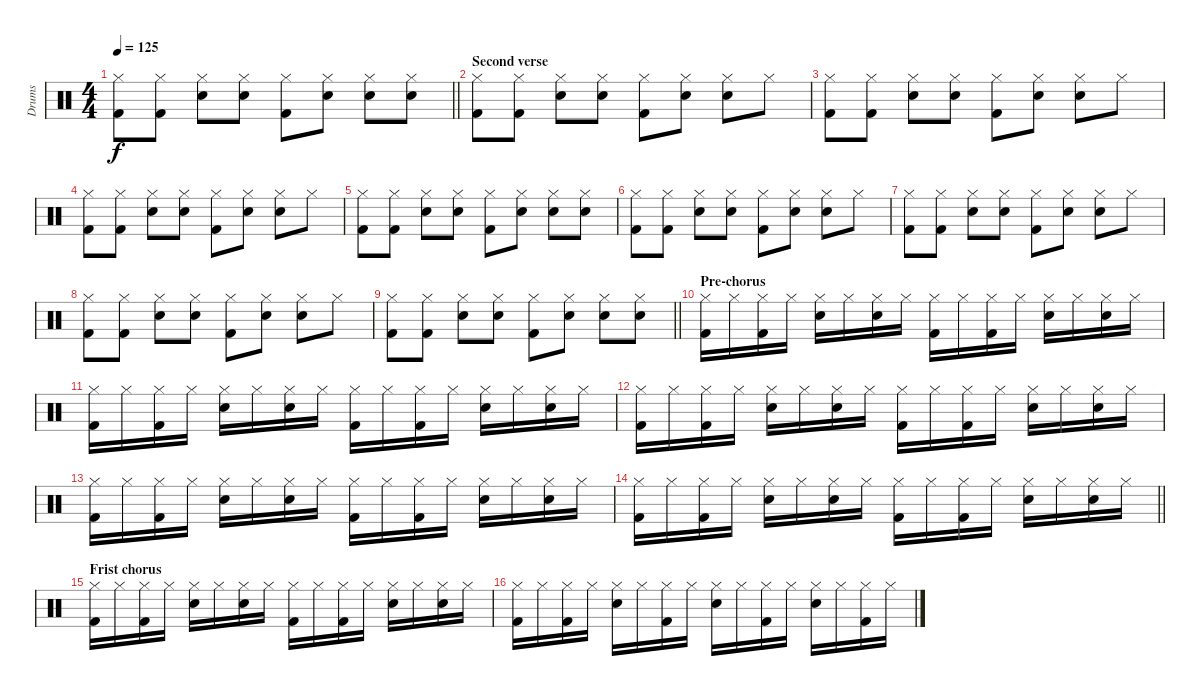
\track ("Drums" "Drums") {instrument percussion}
\staff {score}
\articulation defaults
\ts (4 4)
\tempo 125
\clef neutral
\barLineRight lightlight
\ks c
("Hi-Hat (closed)" "Kick (hit) 2").8{dy f} ("Hi-Hat (closed)" "Kick (hit) 2").8 ("Hi-Hat (closed)" "Electric Snare (hit)").8 ("Hi-Hat (closed)" "Electric Snare (hit)").8 ("Hi-Hat (closed)" "Kick (hit) 2").8 ("Hi-Hat (closed)" "Electric Snare (hit)").8 ("Hi-Hat (closed)" "Electric Snare (hit)").8 ("Hi-Hat (closed)" "Electric Snare (hit)").8 |
\section ("" "Second verse")
("Hi-Hat (closed)" "Kick (hit) 2").8 ("Hi-Hat (closed)" "Kick (hit) 2").8 ("Hi-Hat (closed)" "Electric Snare (hit)").8 ("Hi-Hat (closed)" "Electric Snare (hit)").8 ("Hi-Hat (closed)" "Kick (hit) 2").8 ("Hi-Hat (closed)" "Electric Snare (hit)").8 ("Hi-Hat (closed)" "Electric Snare (hit)").8 "Hi-Hat (closed)".8 |
("Hi-Hat (closed)" "Kick (hit) 2").8 ("Hi-Hat (closed)" "Kick (hit) 2").8 ("Hi-Hat (closed)" "Electric Snare (hit)").8 ("Hi-Hat (closed)" "Electric Snare (hit)").8 ("Hi-Hat (closed)" "Kick (hit) 2").8 ("Hi-Hat (closed)" "Electric Snare (hit)").8 ("Hi-Hat (closed)" "Electric Snare (hit)").8 "Hi-Hat (closed)".8 |
("Hi-Hat (closed)" "Kick (hit) 2").8 ("Hi-Hat (closed)" "Kick (hit) 2").8 ("Hi-Hat (closed)" "Electric Snare (hit)").8 ("Hi-Hat (closed)" "Electric Snare (hit)").8 ("Hi-Hat (closed)" "Kick (hit) 2").8 ("Hi-Hat (closed)" "Electric Snare (hit)").8 ("Hi-Hat (closed)" "Electric Snare (hit)").8 "Hi-Hat (closed)".8 |
("Hi-Hat (closed)" "Kick (hit) 2").8 ("Hi-Hat (closed)" "Kick (hit) 2").8 ("Hi-Hat (closed)" "Electric Snare (hit)").8 ("Hi-Hat (closed)" "Electric Snare (hit)").8 ("Hi-Hat (closed)" "Kick (hit) 2").8 ("Hi-Hat (closed)" "Electric Snare (hit)").8 ("Hi-Hat (closed)" "Electric Snare (hit)").8 ("Hi-Hat (closed)" "Electric Snare (hit)").8 |
("Hi-Hat (closed)" "Kick (hit) 2").8 ("Hi-Hat (closed)" "Kick (hit) 2").8 ("Hi-Hat (closed)" "Electric Snare (hit)").8 ("Hi-Hat (closed)" "Electric Snare (hit)").8 ("Hi-Hat (closed)" "Kick (hit) 2").8 ("Hi-Hat (closed)" "Electric Snare (hit)").8 ("Hi-Hat (closed)" "Electric Snare (hit)").8 "Hi-Hat (closed)".8 |
("Hi-Hat (closed)" "Kick (hit) 2").8 ("Hi-Hat (closed)" "Kick (hit) 2").8 ("Hi-Hat (closed)" "Electric Snare (hit)").8 ("Hi-Hat (closed)" "Electric Snare (hit)").8 ("Hi-Hat (closed)" "Kick (hit) 2").8 ("Hi-Hat (closed)" "Electric Snare (hit)").8 ("Hi-Hat (closed)" "Electric Snare (hit)").8 "Hi-Hat (closed)".8 |
("Hi-Hat (closed)" "Kick (hit) 2").8 ("Hi-Hat (closed)" "Kick (hit) 2").8 ("Hi-Hat (closed)" "Electric Snare (hit)").8 ("Hi-Hat (closed)" "Electric Snare (hit)").8 ("Hi-Hat (closed)" "Kick (hit) 2").8 ("Hi-Hat (closed)" "Electric Snare (hit)").8 ("Hi-Hat (closed)" "Electric Snare (hit)").8 "Hi-Hat (closed)".8 |
\barLineRight lightlight
("Hi-Hat (closed)" "Kick (hit) 2").8 ("Hi-Hat (closed)" "Kick (hit) 2").8 ("Hi-Hat (closed)" "Electric Snare (hit)").8 ("Hi-Hat (closed)" "Electric Snare (hit)").8 ("Hi-Hat (closed)" "Kick (hit) 2").8 ("Hi-Hat (closed)" "Electric Snare (hit)").8 ("Hi-Hat (closed)" "Electric Snare (hit)").8 ("Hi-Hat (closed)" "Electric Snare (hit)").8 |
\section ("" "Pre-chorus")
("Hi-Hat (closed)" "Kick (hit) 2").16 "Hi-Hat (closed)".16 ("Hi-Hat (closed)" "Kick (hit) 2").16 "Hi-Hat (closed)".16 ("Hi-Hat (closed)" "Electric Snare (hit)").16 "Hi-Hat (closed)".16 ("Hi-Hat (closed)" "Electric Snare (hit)").16 "Hi-Hat (closed)".16 ("Hi-Hat (closed)" "Kick (hit) 2").16 "Hi-Hat (closed)".16 ("Hi-Hat (closed)" "Kick (hit) 2").16 "Hi-Hat (closed)".16 ("Hi-Hat (closed)" "Electric Snare (hit)").16 "Hi-Hat (closed)".16 ("Hi-Hat (closed)" "Electric Snare (hit)").16 "Hi-Hat (closed)".16 |
("Hi-Hat (closed)" "Kick (hit) 2").16 "Hi-Hat (closed)".16 ("Hi-Hat (closed)" "Kick (hit) 2").16 "Hi-Hat (closed)".16 ("Hi-Hat (closed)" "Electric Snare (hit)").16 "Hi-Hat (closed)".16 ("Hi-Hat (closed)" "Electric Snare (hit)").16 "Hi-Hat (closed)".16 ("Hi-Hat (closed)" "Kick (hit) 2").16 "Hi-Hat (closed)".16 ("Hi-Hat (closed)" "Kick (hit) 2").16 "Hi-Hat (closed)".16 ("Hi-Hat (closed)" "Electric Snare (hit)").16 "Hi-Hat (closed)".16 ("Hi-Hat (closed)" "Electric Snare (hit)").16 "Hi-Hat (closed)".16 |
("Hi-Hat (closed)" "Kick (hit) 2").16 "Hi-Hat (closed)".16 ("Hi-Hat (closed)" "Kick (hit) 2").16 "Hi-Hat (closed)".16 ("Hi-Hat (closed)" "Electric Snare (hit)").16 "Hi-Hat (closed)".16 ("Hi-Hat (closed)" "Electric Snare (hit)").16 "Hi-Hat (closed)".16 ("Hi-Hat (closed)" "Kick (hit) 2").16 "Hi-Hat (closed)".16 ("Hi-Hat (closed)" "Kick (hit) 2").16 "Hi-Hat (closed)".16 ("Hi-Hat (closed)" "Electric Snare (hit)").16 "Hi-Hat (closed)".16 ("Hi-Hat (closed)" "Electric Snare (hit)").16 "Hi-Hat (closed)".16 |
("Hi-Hat (closed)" "Kick (hit) 2").16 "Hi-Hat (closed)".16 ("Hi-Hat (closed)" "Kick (hit) 2").16 "Hi-Hat (closed)".16 ("Hi-Hat (closed)" "Electric Snare (hit)").16 "Hi-Hat (closed)".16 ("Hi-Hat (closed)" "Electric Snare (hit)").16 "Hi-Hat (closed)".16 ("Hi-Hat (closed)" "Kick (hit) 2").16 "Hi-Hat (closed)".16 ("Hi-Hat (closed)" "Kick (hit) 2").16 "Hi-Hat (closed)".16 ("Hi-Hat (closed)" "Electric Snare (hit)").16 "Hi-Hat (closed)".16 ("Hi-Hat (closed)" "Electric Snare (hit)").16 "Hi-Hat (closed)".16 |
\barLineRight lightlight
("Hi-Hat (closed)" "Kick (hit) 2").16 "Hi-Hat (closed)".16 ("Hi-Hat (closed)" "Kick (hit) 2").16 "Hi-Hat (closed)".16 ("Hi-Hat (closed)" "Electric Snare (hit)").16 "Hi-Hat (closed)".16 ("Hi-Hat (closed)" "Electric Snare (hit)").16 "Hi-Hat (closed)".16 ("Hi-Hat (closed)" "Kick (hit) 2").16 "Hi-Hat (closed)".16 ("Hi-Hat (closed)" "Kick (hit) 2").16 "Hi-Hat (closed)".16 ("Hi-Hat (closed)" "Electric Snare (hit)").16 "Hi-Hat (closed)".16 ("Hi-Hat (closed)" "Electric Snare (hit)").16 "Hi-Hat (closed)".16 |
\section ("" "Frist chorus")
("Hi-Hat (closed)" "Kick (hit) 2").16 "Hi-Hat (closed)".16 ("Hi-Hat (closed)" "Kick (hit) 2").16 "Hi-Hat (closed)".16 ("Hi-Hat (closed)" "Electric Snare (hit)").16 "Hi-Hat (closed)".16 ("Hi-Hat (closed)" "Electric Snare (hit)").16 "Hi-Hat (closed)".16 ("Hi-Hat (closed)" "Kick (hit) 2").16 "Hi-Hat (closed)".16 ("Hi-Hat (closed)" "Kick (hit) 2").16 "Hi-Hat (closed)".16 ("Hi-Hat (closed)" "Electric Snare (hit)").16 "Hi-Hat (closed)".16 ("Hi-Hat (closed)" "Electric Snare (hit)").16 "Hi-Hat (closed)".16 |
("Hi-Hat (closed)" "Kick (hit) 2").16 "Hi-Hat (closed)".16 ("Hi-Hat (closed)" "Kick (hit) 2").16 "Hi-Hat (closed)".16 ("Hi-Hat (closed)" "Electric Snare (hit)").16 "Hi-Hat (closed)".16 ("Hi-Hat (closed)" "Kick (hit) 2").16 "Hi-Hat (closed)".16 ("Hi-Hat (closed)" "Electric Snare (hit)").16 "Hi-Hat (closed)".16 ("Hi-Hat (closed)" "Kick (hit) 2").16 "Hi-Hat (closed)".16 ("Hi-Hat (closed)" "Electric Snare (hit)").16 "Hi-Hat (closed)".16 ("Hi-Hat (closed)" "Kick (hit) 2").16 "Hi-Hat (closed)".16
